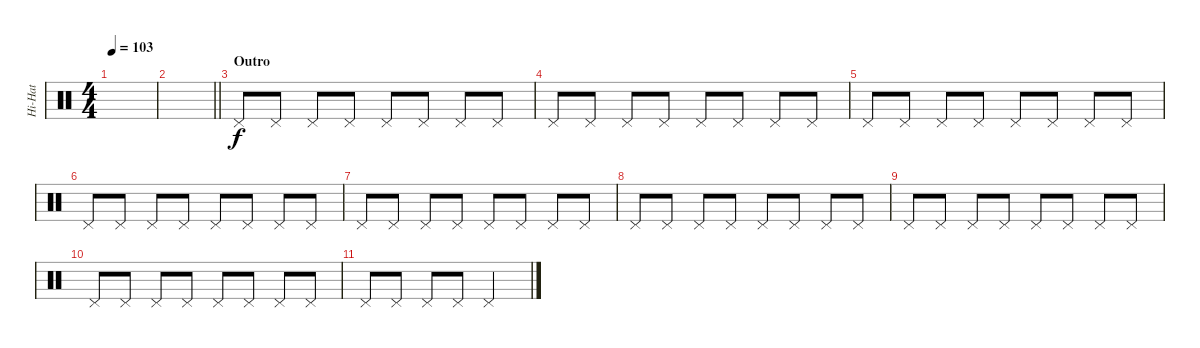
\track ("Hi-Hat" "Hi-Hat") {instrument percussion}
\staff {score}
\articulation defaults
\ts (4 4)
\tempo 103
\clef neutral
\ks c
|
\barLineRight lightlight
|
\section ("" "Outro")
"Pedal Hi-Hat (hit)".8 "Pedal Hi-Hat (hit)".8 "Pedal Hi-Hat (hit)".8 "Pedal Hi-Hat (hit)".8 "Pedal Hi-Hat (hit)".8 "Pedal Hi-Hat (hit)".8 "Pedal Hi-Hat (hit)".8 "Pedal Hi-Hat (hit)".8 |
"Pedal Hi-Hat (hit)".8 "Pedal Hi-Hat (hit)".8 "Pedal Hi-Hat (hit)".8 "Pedal Hi-Hat (hit)".8 "Pedal Hi-Hat (hit)".8 "Pedal Hi-Hat (hit)".8 "Pedal Hi-Hat (hit)".8 "Pedal Hi-Hat (hit)".8 |
"Pedal Hi-Hat (hit)".8 "Pedal Hi-Hat (hit)".8 "Pedal Hi-Hat (hit)".8 "Pedal Hi-Hat (hit)".8 "Pedal Hi-Hat (hit)".8 "Pedal Hi-Hat (hit)".8 "Pedal Hi-Hat (hit)".8 "Pedal Hi-Hat (hit)".8 |
"Pedal Hi-Hat (hit)".8 "Pedal Hi-Hat (hit)".8 "Pedal Hi-Hat (hit)".8 "Pedal Hi-Hat (hit)".8 "Pedal Hi-Hat (hit)".8 "Pedal Hi-Hat (hit)".8 "Pedal Hi-Hat (hit)".8 "Pedal Hi-Hat (hit)".8 |
"Pedal Hi-Hat (hit)".8 "Pedal Hi-Hat (hit)".8 "Pedal Hi-Hat (hit)".8 "Pedal Hi-Hat (hit)".8 "Pedal Hi-Hat (hit)".8 "Pedal Hi-Hat (hit)".8 "Pedal Hi-Hat (hit)".8 "Pedal Hi-Hat (hit)".8 |
"Pedal Hi-Hat (hit)".8 "Pedal Hi-Hat (hit)".8 "Pedal Hi-Hat (hit)".8 "Pedal Hi-Hat (hit)".8 "Pedal Hi-Hat (hit)".8 "Pedal Hi-Hat (hit)".8 "Pedal Hi-Hat (hit)".8 "Pedal Hi-Hat (hit)".8 |
"Pedal Hi-Hat (hit)".8 "Pedal Hi-Hat (hit)".8 "Pedal Hi-Hat (hit)".8 "Pedal Hi-Hat (hit)".8 "Pedal Hi-Hat (hit)".8 "Pedal Hi-Hat (hit)".8 "Pedal Hi-Hat (hit)".8 "Pedal Hi-Hat (hit)".8 |
"Pedal Hi-Hat (hit)".8 "Pedal Hi-Hat (hit)".8 "Pedal Hi-Hat (hit)".8 "Pedal Hi-Hat (hit)".8 "Pedal Hi-Hat (hit)".8 "Pedal Hi-Hat (hit)".8 "Pedal Hi-Hat (hit)".8 "Pedal Hi-Hat (hit)".8 |
"Pedal Hi-Hat (hit)".8 "Pedal Hi-Hat (hit)".8 "Pedal Hi-Hat (hit)".8 "Pedal Hi-Hat (hit)".8 "Pedal Hi-Hat (hit)".2
